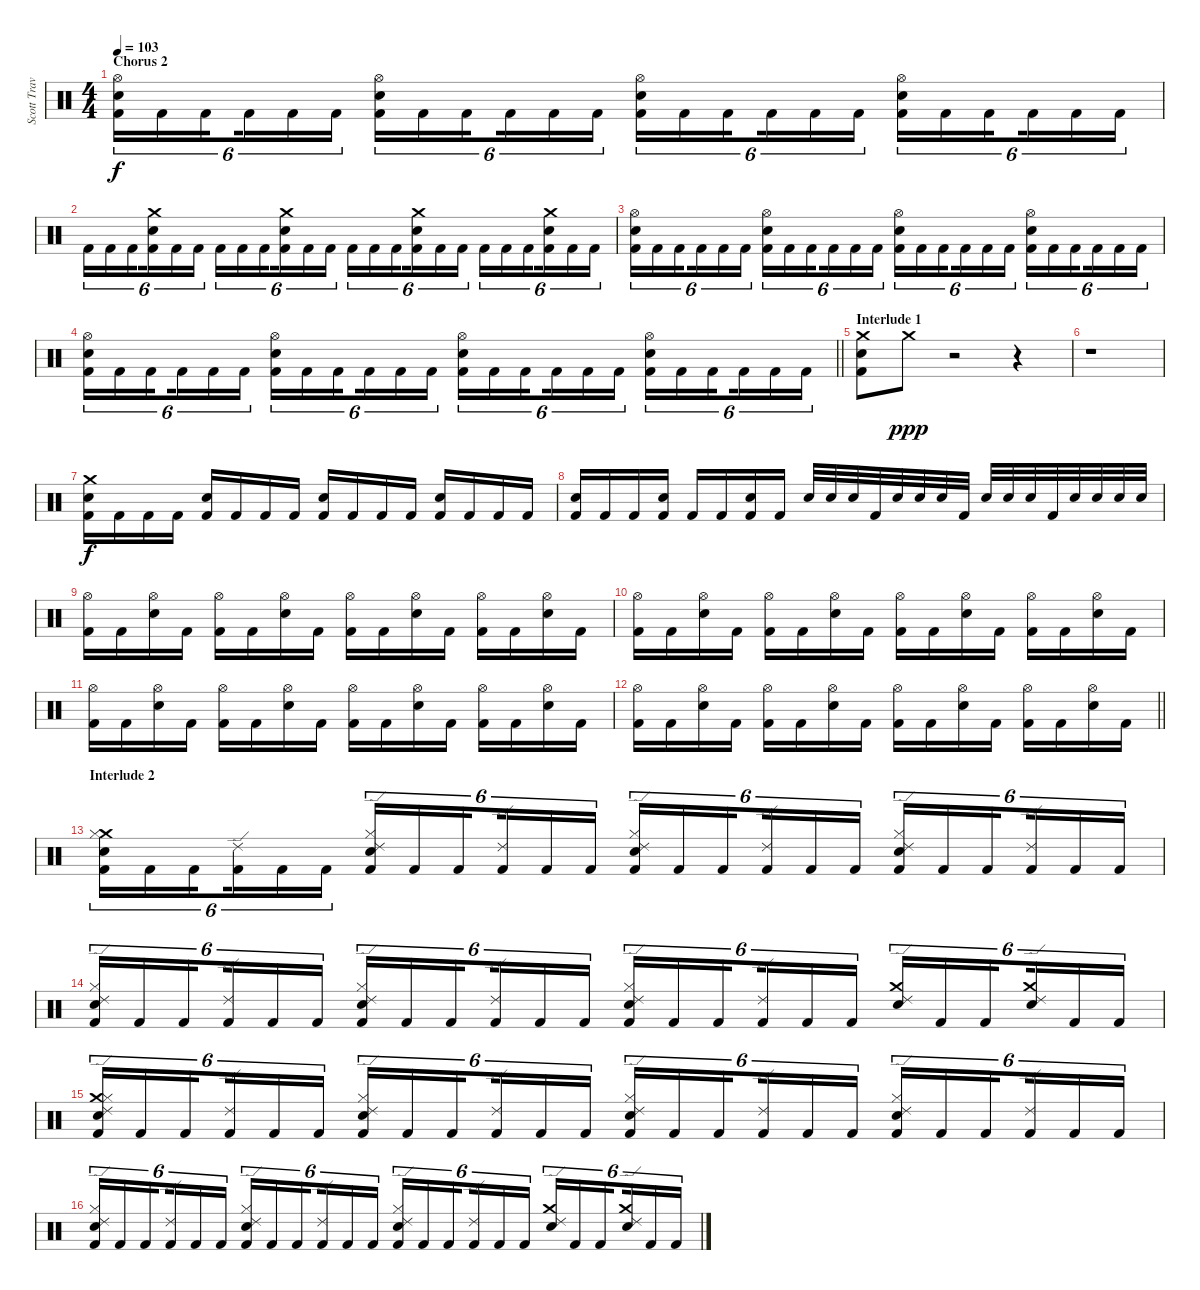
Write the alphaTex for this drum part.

\track ("Scott Travis" "Scott Trav") {instrument percussion}
\staff {score}
\articulation defaults
\ts (4 4)
\section ("" "Chorus 2")
\tempo 103
\clef neutral
\ks c
("Hi-Hat (open)" "Snare (hit) 2" "Kick (hit) 2").16{tu (6 4) dy f} "Kick (hit) 2".16{tu (6 4)} "Kick (hit) 2".16{tu (6 4) beam splitsecondary} "Kick (hit) 2".16{tu (6 4)} "Kick (hit) 2".16{tu (6 4)} "Kick (hit) 2".16{tu (6 4)} ("Hi-Hat (open)" "Snare (hit) 2" "Kick (hit) 2").16{tu (6 4)} "Kick (hit) 2".16{tu (6 4)} "Kick (hit) 2".16{tu (6 4) beam splitsecondary} "Kick (hit) 2".16{tu (6 4)} "Kick (hit) 2".16{tu (6 4)} "Kick (hit) 2".16{tu (6 4)} ("Hi-Hat (open)" "Snare (hit) 2" "Kick (hit) 2").16{tu (6 4)} "Kick (hit) 2".16{tu (6 4)} "Kick (hit) 2".16{tu (6 4) beam splitsecondary} "Kick (hit) 2".16{tu (6 4)} "Kick (hit) 2".16{tu (6 4)} "Kick (hit) 2".16{tu (6 4)} ("Hi-Hat (open)" "Snare (hit) 2" "Kick (hit) 2").16{tu (6 4)} "Kick (hit) 2".16{tu (6 4)} "Kick (hit) 2".16{tu (6 4) beam splitsecondary} "Kick (hit) 2".16{tu (6 4)} "Kick (hit) 2".16{tu (6 4)} "Kick (hit) 2".16{tu (6 4)} |
"Kick (hit) 2".16{tu (6 4)} "Kick (hit) 2".16{tu (6 4)} "Kick (hit) 2".16{tu (6 4) beam splitsecondary} ("Crash medium (hit)" "Snare (hit) 2" "Kick (hit) 2").16{tu (6 4)} "Kick (hit) 2".16{tu (6 4)} "Kick (hit) 2".16{tu (6 4)} "Kick (hit) 2".16{tu (6 4)} "Kick (hit) 2".16{tu (6 4)} "Kick (hit) 2".16{tu (6 4) beam splitsecondary} ("Crash medium (hit)" "Snare (hit) 2" "Kick (hit) 2").16{tu (6 4)} "Kick (hit) 2".16{tu (6 4)} "Kick (hit) 2".16{tu (6 4)} "Kick (hit) 2".16{tu (6 4)} "Kick (hit) 2".16{tu (6 4)} "Kick (hit) 2".16{tu (6 4) beam splitsecondary} ("Crash medium (hit)" "Snare (hit) 2" "Kick (hit) 2").16{tu (6 4)} "Kick (hit) 2".16{tu (6 4)} "Kick (hit) 2".16{tu (6 4)} "Kick (hit) 2".16{tu (6 4)} "Kick (hit) 2".16{tu (6 4)} "Kick (hit) 2".16{tu (6 4) beam splitsecondary} ("Snare (hit) 2" "Crash medium (hit)" "Kick (hit) 2").16{tu (6 4)} "Kick (hit) 2".16{tu (6 4)} "Kick (hit) 2".16{tu (6 4)} |
("Hi-Hat (open)" "Snare (hit) 2" "Kick (hit) 2").16{tu (6 4)} "Kick (hit) 2".16{tu (6 4)} "Kick (hit) 2".16{tu (6 4) beam splitsecondary} "Kick (hit) 2".16{tu (6 4)} "Kick (hit) 2".16{tu (6 4)} "Kick (hit) 2".16{tu (6 4)} ("Hi-Hat (open)" "Snare (hit) 2" "Kick (hit) 2").16{tu (6 4)} "Kick (hit) 2".16{tu (6 4)} "Kick (hit) 2".16{tu (6 4) beam splitsecondary} "Kick (hit) 2".16{tu (6 4)} "Kick (hit) 2".16{tu (6 4)} "Kick (hit) 2".16{tu (6 4)} ("Hi-Hat (open)" "Snare (hit) 2" "Kick (hit) 2").16{tu (6 4)} "Kick (hit) 2".16{tu (6 4)} "Kick (hit) 2".16{tu (6 4) beam splitsecondary} "Kick (hit) 2".16{tu (6 4)} "Kick (hit) 2".16{tu (6 4)} "Kick (hit) 2".16{tu (6 4)} ("Hi-Hat (open)" "Snare (hit) 2" "Kick (hit) 2").16{tu (6 4)} "Kick (hit) 2".16{tu (6 4)} "Kick (hit) 2".16{tu (6 4) beam splitsecondary} "Kick (hit) 2".16{tu (6 4)} "Kick (hit) 2".16{tu (6 4)} "Kick (hit) 2".16{tu (6 4)} |
\barLineRight lightlight
("Hi-Hat (open)" "Snare (hit) 2" "Kick (hit) 2").16{tu (6 4)} "Kick (hit) 2".16{tu (6 4)} "Kick (hit) 2".16{tu (6 4) beam splitsecondary} "Kick (hit) 2".16{tu (6 4)} "Kick (hit) 2".16{tu (6 4)} "Kick (hit) 2".16{tu (6 4)} ("Hi-Hat (open)" "Snare (hit) 2" "Kick (hit) 2").16{tu (6 4)} "Kick (hit) 2".16{tu (6 4)} "Kick (hit) 2".16{tu (6 4) beam splitsecondary} "Kick (hit) 2".16{tu (6 4)} "Kick (hit) 2".16{tu (6 4)} "Kick (hit) 2".16{tu (6 4)} ("Hi-Hat (open)" "Snare (hit) 2" "Kick (hit) 2").16{tu (6 4)} "Kick (hit) 2".16{tu (6 4)} "Kick (hit) 2".16{tu (6 4) beam splitsecondary} "Kick (hit) 2".16{tu (6 4)} "Kick (hit) 2".16{tu (6 4)} "Kick (hit) 2".16{tu (6 4)} ("Hi-Hat (open)" "Snare (hit) 2" "Kick (hit) 2").16{tu (6 4)} "Kick (hit) 2".16{tu (6 4)} "Kick (hit) 2".16{tu (6 4) beam splitsecondary} "Kick (hit) 2".16{tu (6 4)} "Kick (hit) 2".16{tu (6 4)} "Kick (hit) 2".16{tu (6 4)} |
\section ("" "Interlude 1")
("Crash medium (hit)" "Snare (hit) 2" "Kick (hit) 2").8 "Crash medium (hit)".8{dy ppp} r.2 r.4 |
r.1 |
("Crash medium (hit)" "Snare (hit) 2" "Kick (hit) 2").16{dy f} "Kick (hit) 2".16 "Kick (hit) 2".16 "Kick (hit) 2".16 ("Snare (hit) 2" "Kick (hit) 2").16 "Kick (hit) 2".16 "Kick (hit) 2".16 "Kick (hit) 2".16 ("Snare (hit) 2" "Kick (hit) 2").16 "Kick (hit) 2".16 "Kick (hit) 2".16 "Kick (hit) 2".16 ("Snare (hit) 2" "Kick (hit) 2").16 "Kick (hit) 2".16 "Kick (hit) 2".16 "Kick (hit) 2".16 |
("Snare (hit) 2" "Kick (hit) 2").16 "Kick (hit) 2".16 "Kick (hit) 2".16 ("Snare (hit) 2" "Kick (hit) 2").16 "Kick (hit) 2".16 "Kick (hit) 2".16 ("Snare (hit) 2" "Kick (hit) 2").16 "Kick (hit) 2".16 "Snare (hit) 2".32 "Snare (hit) 2".32 "Snare (hit) 2".32 "Kick (hit) 2".32 "Snare (hit) 2".32 "Snare (hit) 2".32 "Snare (hit) 2".32 "Kick (hit) 2".32 "Snare (hit) 2".32 "Snare (hit) 2".32 "Snare (hit) 2".32 "Kick (hit) 2".32 "Snare (hit) 2".32 "Snare (hit) 2".32 "Snare (hit) 2".32 "Snare (hit) 2".32 |
("Hi-Hat (open)" "Kick (hit) 2").16 "Kick (hit) 2".16 ("Hi-Hat (open)" "Snare (hit) 2").16 "Kick (hit) 2".16 ("Hi-Hat (open)" "Kick (hit) 2").16 "Kick (hit) 2".16 ("Hi-Hat (open)" "Snare (hit) 2").16 "Kick (hit) 2".16 ("Hi-Hat (open)" "Kick (hit) 2").16 "Kick (hit) 2".16 ("Hi-Hat (open)" "Snare (hit) 2").16 "Kick (hit) 2".16 ("Hi-Hat (open)" "Kick (hit) 2").16 "Kick (hit) 2".16 ("Hi-Hat (open)" "Snare (hit) 2").16 "Kick (hit) 2".16 |
("Hi-Hat (open)" "Kick (hit) 2").16 "Kick (hit) 2".16 ("Hi-Hat (open)" "Snare (hit) 2").16 "Kick (hit) 2".16 ("Hi-Hat (open)" "Kick (hit) 2").16 "Kick (hit) 2".16 ("Hi-Hat (open)" "Snare (hit) 2").16 "Kick (hit) 2".16 ("Hi-Hat (open)" "Kick (hit) 2").16 "Kick (hit) 2".16 ("Hi-Hat (open)" "Snare (hit) 2").16 "Kick (hit) 2".16 ("Hi-Hat (open)" "Kick (hit) 2").16 "Kick (hit) 2".16 ("Hi-Hat (open)" "Snare (hit) 2").16 "Kick (hit) 2".16 |
("Hi-Hat (open)" "Kick (hit) 2").16 "Kick (hit) 2".16 ("Hi-Hat (open)" "Snare (hit) 2").16 "Kick (hit) 2".16 ("Hi-Hat (open)" "Kick (hit) 2").16 "Kick (hit) 2".16 ("Hi-Hat (open)" "Snare (hit) 2").16 "Kick (hit) 2".16 ("Hi-Hat (open)" "Kick (hit) 2").16 "Kick (hit) 2".16 ("Hi-Hat (open)" "Snare (hit) 2").16 "Kick (hit) 2".16 ("Hi-Hat (open)" "Kick (hit) 2").16 "Kick (hit) 2".16 ("Hi-Hat (open)" "Snare (hit) 2").16 "Kick (hit) 2".16 |
\barLineRight lightlight
("Hi-Hat (open)" "Kick (hit) 2").16 "Kick (hit) 2".16 ("Hi-Hat (open)" "Snare (hit) 2").16 "Kick (hit) 2".16 ("Hi-Hat (open)" "Kick (hit) 2").16 "Kick (hit) 2".16 ("Hi-Hat (open)" "Snare (hit) 2").16 "Kick (hit) 2".16 ("Hi-Hat (open)" "Kick (hit) 2").16 "Kick (hit) 2".16 ("Hi-Hat (open)" "Snare (hit) 2").16 "Kick (hit) 2".16 ("Hi-Hat (open)" "Kick (hit) 2").16 "Kick (hit) 2".16 ("Hi-Hat (open)" "Snare (hit) 2").16 "Kick (hit) 2".16 |
\section ("" "Interlude 2")
("Crash medium (hit)" "Hi-Hat (closed)" "Snare (hit) 2" "Kick (hit) 2").16{tu (6 4)} "Kick (hit) 2".16{tu (6 4)} "Kick (hit) 2".16{tu (6 4) beam splitsecondary} ("Ride (edge) 2" "Kick (hit) 2").16{tu (6 4)} "Kick (hit) 2".16{tu (6 4)} "Kick (hit) 2".16{tu (6 4)} ("Ride (edge) 2" "Hi-Hat (closed)" "Snare (hit) 2" "Kick (hit) 2").16{tu (6 4)} "Kick (hit) 2".16{tu (6 4)} "Kick (hit) 2".16{tu (6 4) beam splitsecondary} ("Ride (edge) 2" "Kick (hit) 2").16{tu (6 4)} "Kick (hit) 2".16{tu (6 4)} "Kick (hit) 2".16{tu (6 4)} ("Ride (edge) 2" "Hi-Hat (closed)" "Snare (hit) 2" "Kick (hit) 2").16{tu (6 4)} "Kick (hit) 2".16{tu (6 4)} "Kick (hit) 2".16{tu (6 4) beam splitsecondary} ("Ride (edge) 2" "Kick (hit) 2").16{tu (6 4)} "Kick (hit) 2".16{tu (6 4)} "Kick (hit) 2".16{tu (6 4)} ("Ride (edge) 2" "Hi-Hat (closed)" "Snare (hit) 2" "Kick (hit) 2").16{tu (6 4)} "Kick (hit) 2".16{tu (6 4)} "Kick (hit) 2".16{tu (6 4) beam splitsecondary} ("Ride (edge) 2" "Kick (hit) 2").16{tu (6 4)} "Kick (hit) 2".16{tu (6 4)} "Kick (hit) 2".16{tu (6 4)} |
("Ride (edge) 2" "Hi-Hat (closed)" "Snare (hit) 2" "Kick (hit) 2").16{tu (6 4)} "Kick (hit) 2".16{tu (6 4)} "Kick (hit) 2".16{tu (6 4) beam splitsecondary} ("Ride (edge) 2" "Kick (hit) 2").16{tu (6 4)} "Kick (hit) 2".16{tu (6 4)} "Kick (hit) 2".16{tu (6 4)} ("Ride (edge) 2" "Hi-Hat (closed)" "Snare (hit) 2" "Kick (hit) 2").16{tu (6 4)} "Kick (hit) 2".16{tu (6 4)} "Kick (hit) 2".16{tu (6 4) beam splitsecondary} ("Ride (edge) 2" "Kick (hit) 2").16{tu (6 4)} "Kick (hit) 2".16{tu (6 4)} "Kick (hit) 2".16{tu (6 4)} ("Ride (edge) 2" "Hi-Hat (closed)" "Snare (hit) 2" "Kick (hit) 2").16{tu (6 4)} "Kick (hit) 2".16{tu (6 4)} "Kick (hit) 2".16{tu (6 4) beam splitsecondary} ("Ride (edge) 2" "Kick (hit) 2").16{tu (6 4)} "Kick (hit) 2".16{tu (6 4)} "Kick (hit) 2".16{tu (6 4)} ("Ride (edge) 2" "Crash medium (hit)" "Snare (hit) 2").16{tu (6 4)} "Kick (hit) 2".16{tu (6 4)} "Kick (hit) 2".16{tu (6 4) beam splitsecondary} ("Ride (edge) 2" "Crash medium (hit)" "Snare (hit) 2").16{tu (6 4)} "Kick (hit) 2".16{tu (6 4)} "Kick (hit) 2".16{tu (6 4)} |
("Ride (edge) 2" "Crash medium (hit)" "Hi-Hat (closed)" "Snare (hit) 2" "Kick (hit) 2").16{tu (6 4)} "Kick (hit) 2".16{tu (6 4)} "Kick (hit) 2".16{tu (6 4) beam splitsecondary} ("Ride (edge) 2" "Kick (hit) 2").16{tu (6 4)} "Kick (hit) 2".16{tu (6 4)} "Kick (hit) 2".16{tu (6 4)} ("Ride (edge) 2" "Hi-Hat (closed)" "Snare (hit) 2" "Kick (hit) 2").16{tu (6 4)} "Kick (hit) 2".16{tu (6 4)} "Kick (hit) 2".16{tu (6 4) beam splitsecondary} ("Ride (edge) 2" "Kick (hit) 2").16{tu (6 4)} "Kick (hit) 2".16{tu (6 4)} "Kick (hit) 2".16{tu (6 4)} ("Ride (edge) 2" "Hi-Hat (closed)" "Snare (hit) 2" "Kick (hit) 2").16{tu (6 4)} "Kick (hit) 2".16{tu (6 4)} "Kick (hit) 2".16{tu (6 4) beam splitsecondary} ("Ride (edge) 2" "Kick (hit) 2").16{tu (6 4)} "Kick (hit) 2".16{tu (6 4)} "Kick (hit) 2".16{tu (6 4)} ("Ride (edge) 2" "Hi-Hat (closed)" "Snare (hit) 2" "Kick (hit) 2").16{tu (6 4)} "Kick (hit) 2".16{tu (6 4)} "Kick (hit) 2".16{tu (6 4) beam splitsecondary} ("Ride (edge) 2" "Kick (hit) 2").16{tu (6 4)} "Kick (hit) 2".16{tu (6 4)} "Kick (hit) 2".16{tu (6 4)} |
("Ride (edge) 2" "Hi-Hat (closed)" "Snare (hit) 2" "Kick (hit) 2").16{tu (6 4)} "Kick (hit) 2".16{tu (6 4)} "Kick (hit) 2".16{tu (6 4) beam splitsecondary} ("Ride (edge) 2" "Kick (hit) 2").16{tu (6 4)} "Kick (hit) 2".16{tu (6 4)} "Kick (hit) 2".16{tu (6 4)} ("Ride (edge) 2" "Hi-Hat (closed)" "Snare (hit) 2" "Kick (hit) 2").16{tu (6 4)} "Kick (hit) 2".16{tu (6 4)} "Kick (hit) 2".16{tu (6 4) beam splitsecondary} ("Ride (edge) 2" "Kick (hit) 2").16{tu (6 4)} "Kick (hit) 2".16{tu (6 4)} "Kick (hit) 2".16{tu (6 4)} ("Ride (edge) 2" "Hi-Hat (closed)" "Snare (hit) 2" "Kick (hit) 2").16{tu (6 4)} "Kick (hit) 2".16{tu (6 4)} "Kick (hit) 2".16{tu (6 4) beam splitsecondary} ("Ride (edge) 2" "Kick (hit) 2").16{tu (6 4)} "Kick (hit) 2".16{tu (6 4)} "Kick (hit) 2".16{tu (6 4)} ("Ride (edge) 2" "Crash medium (hit)" "Snare (hit) 2").16{tu (6 4)} "Kick (hit) 2".16{tu (6 4)} "Kick (hit) 2".16{tu (6 4) beam splitsecondary} ("Ride (edge) 2" "Crash medium (hit)" "Snare (hit) 2").16{tu (6 4)} "Kick (hit) 2".16{tu (6 4)} "Kick (hit) 2".16{tu (6 4)}
